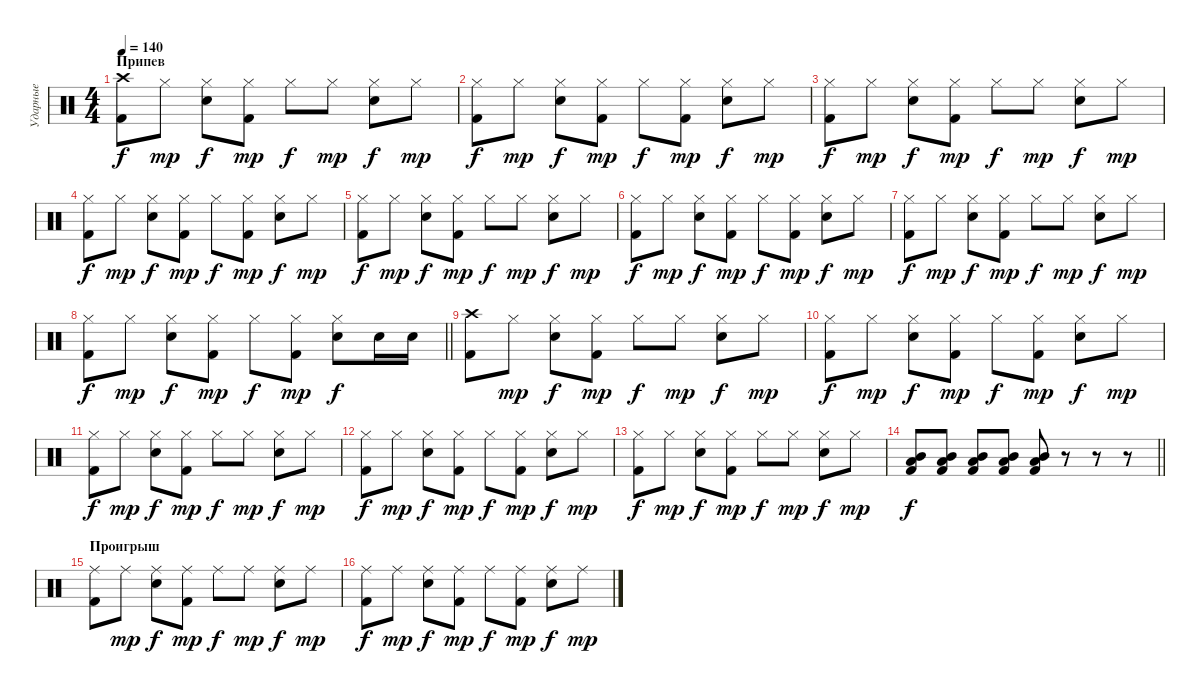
\track ("Ударные" "Ударные") {instrument percussion}
\staff {score}
\articulation defaults
\ts (4 4)
\section ("" "Припев")
\tempo 140
\clef neutral
\ks c
("Crash high (hit)" "Kick (hit) 2").8{dy f} "Hi-Hat (closed)".8{dy mp} ("Hi-Hat (closed)" "Snare (hit) 2").8{dy f} ("Hi-Hat (closed)" "Kick (hit) 2").8{dy mp} "Hi-Hat (closed)".8{dy f} "Hi-Hat (closed)".8{dy mp} ("Hi-Hat (closed)" "Snare (hit) 2").8{dy f} "Hi-Hat (closed)".8{dy mp} |
("Hi-Hat (closed)" "Kick (hit) 2").8{dy f} "Hi-Hat (closed)".8{dy mp} ("Hi-Hat (closed)" "Snare (hit) 2").8{dy f} ("Hi-Hat (closed)" "Kick (hit) 2").8{dy mp} "Hi-Hat (closed)".8{dy f} ("Hi-Hat (closed)" "Kick (hit) 2").8{dy mp} ("Hi-Hat (closed)" "Snare (hit) 2").8{dy f} "Hi-Hat (closed)".8{dy mp} |
("Hi-Hat (closed)" "Kick (hit) 2").8{dy f} "Hi-Hat (closed)".8{dy mp} ("Hi-Hat (closed)" "Snare (hit) 2").8{dy f} ("Hi-Hat (closed)" "Kick (hit) 2").8{dy mp} "Hi-Hat (closed)".8{dy f} "Hi-Hat (closed)".8{dy mp} ("Hi-Hat (closed)" "Snare (hit) 2").8{dy f} "Hi-Hat (closed)".8{dy mp} |
("Hi-Hat (closed)" "Kick (hit) 2").8{dy f} "Hi-Hat (closed)".8{dy mp} ("Hi-Hat (closed)" "Snare (hit) 2").8{dy f} ("Hi-Hat (closed)" "Kick (hit) 2").8{dy mp} "Hi-Hat (closed)".8{dy f} ("Hi-Hat (closed)" "Kick (hit) 2").8{dy mp} ("Hi-Hat (closed)" "Snare (hit) 2").8{dy f} "Hi-Hat (closed)".8{dy mp} |
("Hi-Hat (closed)" "Kick (hit) 2").8{dy f} "Hi-Hat (closed)".8{dy mp} ("Hi-Hat (closed)" "Snare (hit) 2").8{dy f} ("Hi-Hat (closed)" "Kick (hit) 2").8{dy mp} "Hi-Hat (closed)".8{dy f} "Hi-Hat (closed)".8{dy mp} ("Hi-Hat (closed)" "Snare (hit) 2").8{dy f} "Hi-Hat (closed)".8{dy mp} |
("Hi-Hat (closed)" "Kick (hit) 2").8{dy f} "Hi-Hat (closed)".8{dy mp} ("Hi-Hat (closed)" "Snare (hit) 2").8{dy f} ("Hi-Hat (closed)" "Kick (hit) 2").8{dy mp} "Hi-Hat (closed)".8{dy f} ("Hi-Hat (closed)" "Kick (hit) 2").8{dy mp} ("Hi-Hat (closed)" "Snare (hit) 2").8{dy f} "Hi-Hat (closed)".8{dy mp} |
("Hi-Hat (closed)" "Kick (hit) 2").8{dy f} "Hi-Hat (closed)".8{dy mp} ("Hi-Hat (closed)" "Snare (hit) 2").8{dy f} ("Hi-Hat (closed)" "Kick (hit) 2").8{dy mp} "Hi-Hat (closed)".8{dy f} "Hi-Hat (closed)".8{dy mp} ("Hi-Hat (closed)" "Snare (hit) 2").8{dy f} "Hi-Hat (closed)".8{dy mp} |
\barLineRight lightlight
("Hi-Hat (closed)" "Kick (hit) 2").8{dy f} "Hi-Hat (closed)".8{dy mp} ("Hi-Hat (closed)" "Snare (hit) 2").8{dy f} ("Hi-Hat (closed)" "Kick (hit) 2").8{dy mp} "Hi-Hat (closed)".8{dy f} ("Hi-Hat (closed)" "Kick (hit) 2").8{dy mp} ("Hi-Hat (closed)" "Snare (hit) 2").8{dy f} "Snare (hit) 2".16 "Snare (hit) 2".16 |
\section ("" "")
("Crash high (hit)" "Kick (hit) 2").8 "Hi-Hat (closed)".8{dy mp} ("Hi-Hat (closed)" "Snare (hit) 2").8{dy f} ("Hi-Hat (closed)" "Kick (hit) 2").8{dy mp} "Hi-Hat (closed)".8{dy f} "Hi-Hat (closed)".8{dy mp} ("Hi-Hat (closed)" "Snare (hit) 2").8{dy f} "Hi-Hat (closed)".8{dy mp} |
("Hi-Hat (closed)" "Kick (hit) 2").8{dy f} "Hi-Hat (closed)".8{dy mp} ("Hi-Hat (closed)" "Snare (hit) 2").8{dy f} ("Hi-Hat (closed)" "Kick (hit) 2").8{dy mp} "Hi-Hat (closed)".8{dy f} ("Hi-Hat (closed)" "Kick (hit) 2").8{dy mp} ("Hi-Hat (closed)" "Snare (hit) 2").8{dy f} "Hi-Hat (closed)".8{dy mp} |
("Hi-Hat (closed)" "Kick (hit) 2").8{dy f} "Hi-Hat (closed)".8{dy mp} ("Hi-Hat (closed)" "Snare (hit) 2").8{dy f} ("Hi-Hat (closed)" "Kick (hit) 2").8{dy mp} "Hi-Hat (closed)".8{dy f} "Hi-Hat (closed)".8{dy mp} ("Hi-Hat (closed)" "Snare (hit) 2").8{dy f} "Hi-Hat (closed)".8{dy mp} |
("Hi-Hat (closed)" "Kick (hit) 2").8{dy f} "Hi-Hat (closed)".8{dy mp} ("Hi-Hat (closed)" "Snare (hit) 2").8{dy f} ("Hi-Hat (closed)" "Kick (hit) 2").8{dy mp} "Hi-Hat (closed)".8{dy f} ("Hi-Hat (closed)" "Kick (hit) 2").8{dy mp} ("Hi-Hat (closed)" "Snare (hit) 2").8{dy f} "Hi-Hat (closed)".8{dy mp} |
("Hi-Hat (closed)" "Kick (hit) 2").8{dy f} "Hi-Hat (closed)".8{dy mp} ("Hi-Hat (closed)" "Snare (hit) 2").8{dy f} ("Hi-Hat (closed)" "Kick (hit) 2").8{dy mp} "Hi-Hat (closed)".8{dy f} "Hi-Hat (closed)".8{dy mp} ("Hi-Hat (closed)" "Snare (hit) 2").8{dy f} "Hi-Hat (closed)".8{dy mp} |
\barLineRight lightlight
("Mid Tom (hit)" "Low Tom (hit)" "Kick (hit) 2").8{dy f} ("Mid Tom (hit)" "Low Tom (hit)" "Kick (hit) 2").8 ("Mid Tom (hit)" "Low Tom (hit)" "Kick (hit) 2").8 ("Mid Tom (hit)" "Low Tom (hit)" "Kick (hit) 2").8 ("Mid Tom (hit)" "Low Tom (hit)" "Kick (hit) 2").8 r.8 r.8 r.8 |
\section ("" "Проигрыш")
("Ride (middle)" "Kick (hit) 2").8 "Ride (middle)".8{dy mp} ("Ride (middle)" "Snare (hit) 2").8{dy f} ("Ride (middle)" "Kick (hit) 2").8{dy mp} "Ride (middle)".8{dy f} "Ride (middle)".8{dy mp} ("Ride (middle)" "Snare (hit) 2").8{dy f} "Ride (middle)".8{dy mp} |
("Ride (middle)" "Kick (hit) 2").8{dy f} "Ride (middle)".8{dy mp} ("Ride (middle)" "Snare (hit) 2").8{dy f} ("Ride (middle)" "Kick (hit) 2").8{dy mp} "Ride (middle)".8{dy f} ("Ride (middle)" "Kick (hit) 2").8{dy mp} ("Ride (middle)" "Snare (hit) 2").8{dy f} "Ride (middle)".8{dy mp}
